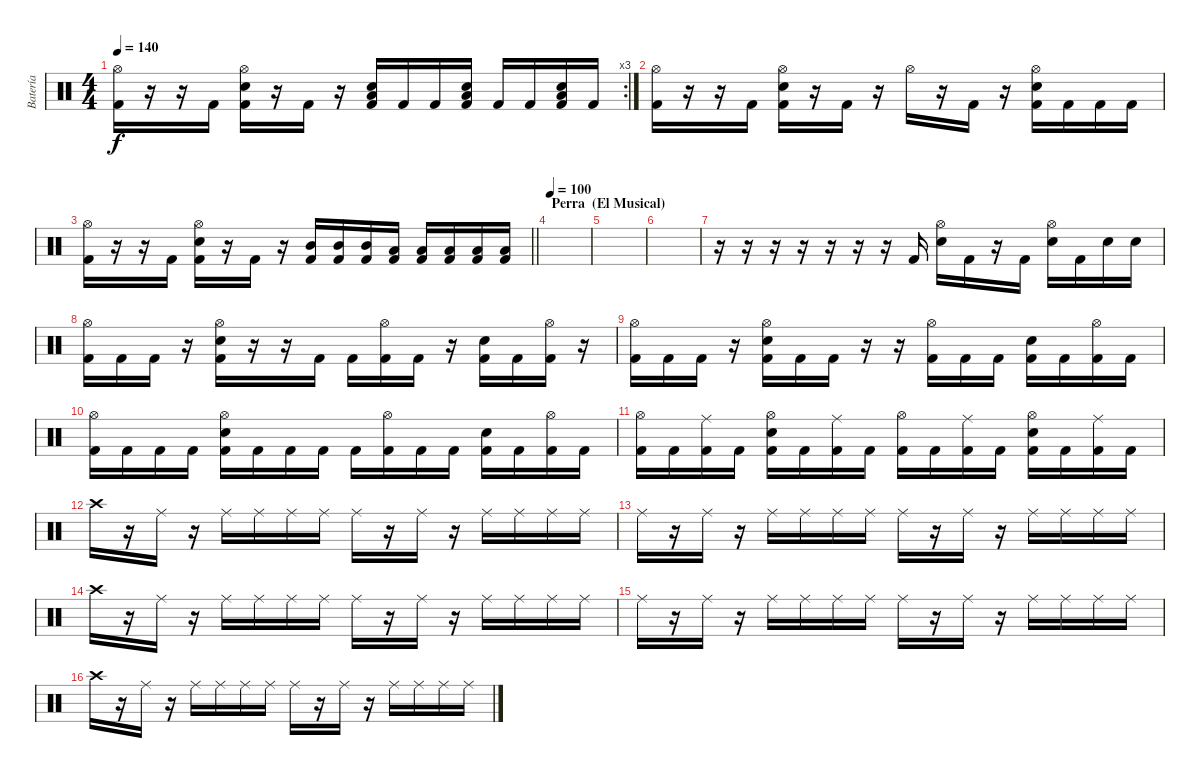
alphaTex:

\track ("Batería" "Batería") {instrument percussion}
\staff {score}
\articulation defaults
\rc 3
\ts (4 4)
\tempo 140
\clef neutral
\ks c
("Hi-Hat (open)" "Kick (hit) 2").16{dy f} r.16 r.16 "Kick (hit) 2".16 ("Hi-Hat (open)" "Snare (hit) 2" "Kick (hit) 2").16 r.16 "Kick (hit) 2".16 r.16 ("Low Floor Tom (hit)" "Snare (hit) 2" "Kick (hit) 2").16 "Kick (hit) 2".16 "Kick (hit) 2".16 ("Low Floor Tom (hit)" "Snare (hit) 2" "Kick (hit) 2").16 "Kick (hit) 2".16 "Kick (hit) 2".16 ("Low Floor Tom (hit)" "Snare (hit) 2" "Kick (hit) 2").16 "Kick (hit) 2".16 |
("Hi-Hat (open)" "Kick (hit) 2").16 r.16 r.16 "Kick (hit) 2".16 ("Hi-Hat (open)" "Snare (hit) 2" "Kick (hit) 2").16 r.16 "Kick (hit) 2".16 r.16 "Hi-Hat (open)".16 r.16 "Kick (hit) 2".16 r.16 ("Hi-Hat (open)" "Snare (hit) 2" "Kick (hit) 2").16 "Kick (hit) 2".16 "Kick (hit) 2".16 "Kick (hit) 2".16 |
\barLineRight lightlight
("Hi-Hat (open)" "Kick (hit) 2").16 r.16 r.16 "Kick (hit) 2".16 ("Hi-Hat (open)" "Snare (hit) 2" "Kick (hit) 2").16 r.16 "Kick (hit) 2".16 r.16 ("Mid Tom (hit)" "Kick (hit) 2").16 ("Mid Tom (hit)" "Kick (hit) 2").16 ("Mid Tom (hit)" "Kick (hit) 2").16 ("Low Floor Tom (hit)" "Kick (hit) 2").16 ("Low Floor Tom (hit)" "Kick (hit) 2").16 ("Low Floor Tom (hit)" "Kick (hit) 2").16 ("Low Tom (hit)" "Kick (hit) 2").16 ("Low Tom (hit)" "Kick (hit) 2").16 |
\section ("" "Perra  (El Musical)")
\tempo 100
|
|
|
r.16 r.16 r.16 r.16 r.16 r.16 r.16 "Kick (hit) 2".16 ("Hi-Hat (open)" "Snare (hit) 2").16 "Kick (hit) 2".16 r.16 "Kick (hit) 2".16 ("Hi-Hat (open)" "Snare (hit) 2").16 "Kick (hit) 2".16 "Snare (hit) 2".16 "Snare (hit) 2".16 |
("Hi-Hat (open)" "Kick (hit) 2").16 "Kick (hit) 2".16 "Kick (hit) 2".16 r.16 ("Hi-Hat (open)" "Snare (hit) 2" "Kick (hit) 2").16 r.16 r.16 "Kick (hit) 2".16 "Kick (hit) 2".16 ("Hi-Hat (open)" "Kick (hit) 2").16 "Kick (hit) 2".16 r.16 ("Snare (hit) 2" "Kick (hit) 2").16 "Kick (hit) 2".16 ("Hi-Hat (open)" "Kick (hit) 2").16 r.16 |
("Hi-Hat (open)" "Kick (hit) 2").16 "Kick (hit) 2".16 "Kick (hit) 2".16 r.16 ("Hi-Hat (open)" "Snare (hit) 2" "Kick (hit) 2").16 "Kick (hit) 2".16 "Kick (hit) 2".16 r.16 r.16 ("Hi-Hat (open)" "Kick (hit) 2").16 "Kick (hit) 2".16 "Kick (hit) 2".16 ("Snare (hit) 2" "Kick (hit) 2").16 "Kick (hit) 2".16 ("Hi-Hat (open)" "Kick (hit) 2").16 "Kick (hit) 2".16 |
("Hi-Hat (open)" "Kick (hit) 2").16 "Kick (hit) 2".16 "Kick (hit) 2".16 "Kick (hit) 2".16 ("Hi-Hat (open)" "Snare (hit) 2" "Kick (hit) 2").16 "Kick (hit) 2".16 "Kick (hit) 2".16 "Kick (hit) 2".16 "Kick (hit) 2".16 ("Hi-Hat (open)" "Kick (hit) 2").16 "Kick (hit) 2".16 "Kick (hit) 2".16 ("Snare (hit) 2" "Kick (hit) 2").16 "Kick (hit) 2".16 ("Hi-Hat (open)" "Kick (hit) 2").16 "Kick (hit) 2".16 |
("Hi-Hat (open)" "Kick (hit) 2").16 "Kick (hit) 2".16 ("Ride (middle)" "Kick (hit) 2").16 "Kick (hit) 2".16 ("Hi-Hat (open)" "Snare (hit) 2" "Kick (hit) 2").16 "Kick (hit) 2".16 ("Ride (middle)" "Kick (hit) 2").16 "Kick (hit) 2".16 ("Hi-Hat (open)" "Kick (hit) 2").16 "Kick (hit) 2".16 ("Ride (middle)" "Kick (hit) 2").16 "Kick (hit) 2".16 ("Hi-Hat (open)" "Snare (hit) 2" "Kick (hit) 2").16 "Kick (hit) 2".16 ("Ride (middle)" "Kick (hit) 2").16 "Kick (hit) 2".16 |
"Crash high (hit)".16 r.16 "Ride (middle)".16 r.16 "Ride (middle)".16 "Ride (middle)".16 "Ride (middle)".16 "Ride (middle)".16 "Ride (middle)".16 r.16 "Ride (middle)".16 r.16 "Ride (middle)".16 "Ride (middle)".16 "Ride (middle)".16 "Ride (middle)".16 |
"Ride (middle)".16 r.16 "Ride (middle)".16 r.16 "Ride (middle)".16 "Ride (middle)".16 "Ride (middle)".16 "Ride (middle)".16 "Ride (middle)".16 r.16 "Ride (middle)".16 r.16 "Ride (middle)".16 "Ride (middle)".16 "Ride (middle)".16 "Ride (middle)".16 |
"Crash high (hit)".16 r.16 "Ride (middle)".16 r.16 "Ride (middle)".16 "Ride (middle)".16 "Ride (middle)".16 "Ride (middle)".16 "Ride (middle)".16 r.16 "Ride (middle)".16 r.16 "Ride (middle)".16 "Ride (middle)".16 "Ride (middle)".16 "Ride (middle)".16 |
"Ride (middle)".16 r.16 "Ride (middle)".16 r.16 "Ride (middle)".16 "Ride (middle)".16 "Ride (middle)".16 "Ride (middle)".16 "Ride (middle)".16 r.16 "Ride (middle)".16 r.16 "Ride (middle)".16 "Ride (middle)".16 "Ride (middle)".16 "Ride (middle)".16 |
"Crash high (hit)".16 r.16 "Ride (middle)".16 r.16 "Ride (middle)".16 "Ride (middle)".16 "Ride (middle)".16 "Ride (middle)".16 "Ride (middle)".16 r.16 "Ride (middle)".16 r.16 "Ride (middle)".16 "Ride (middle)".16 "Ride (middle)".16 "Ride (middle)".16
